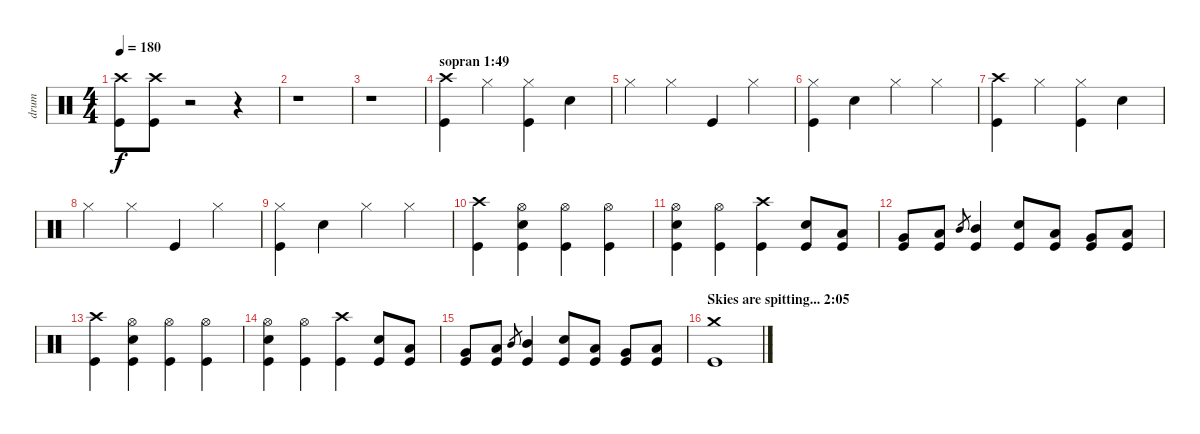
\track ("drum" "drum") {instrument percussion}
\staff {score}
\articulation defaults
\ts (4 4)
\tempo 180
\clef neutral
\ks c
("Crash high (hit)" "Kick (hit)").8{dy f} ("Crash high (hit)" "Kick (hit)").8 r.2{volume 0} r.4 |
r.1 |
r.1{volume 13} |
\section ("" "sopran 1:49")
("Crash high (hit)" "Kick (hit)").4 "Hi-Hat (closed)".4 ("Hi-Hat (closed)" "Kick (hit)").4 "Snare (hit) 2".4 |
"Hi-Hat (closed)".4 "Hi-Hat (closed)".4 "Kick (hit)".4 "Hi-Hat (closed)".4 |
("Hi-Hat (closed)" "Kick (hit)").4 "Snare (hit) 2".4 "Hi-Hat (closed)".4 "Hi-Hat (closed)".4 |
("Crash high (hit)" "Kick (hit)").4 "Hi-Hat (closed)".4 ("Hi-Hat (closed)" "Kick (hit)").4 "Snare (hit) 2".4 |
"Hi-Hat (closed)".4 "Hi-Hat (closed)".4 "Kick (hit)".4 "Hi-Hat (closed)".4 |
("Hi-Hat (closed)" "Kick (hit)").4 "Snare (hit) 2".4 "Hi-Hat (closed)".4 "Hi-Hat (closed)".4 |
("Crash high (hit)" "Kick (hit)").4 ("Hi-Hat (open)" "Snare (hit) 2" "Kick (hit)").4 ("Hi-Hat (open)" "Kick (hit)").4 ("Hi-Hat (open)" "Kick (hit)").4 |
("Hi-Hat (open)" "Snare (hit) 2" "Kick (hit)").4 ("Hi-Hat (open)" "Kick (hit)").4 ("Crash high (hit)" "Kick (hit)").4 ("Snare (hit) 2" "Kick (hit)").8 ("Low Tom (hit)" "Kick (hit)").8 |
("Very Low Tom (hit)" "Kick (hit)").8 ("Low Floor Tom (hit)" "Kick (hit)").8 "Mid Tom (hit)".8{gr} ("Mid Tom (hit)" "Kick (hit)").4 ("Snare (hit) 2" "Kick (hit)").8 ("Low Tom (hit)" "Kick (hit)").8 ("Very Low Tom (hit)" "Kick (hit)").8 ("Low Floor Tom (hit)" "Kick (hit)").8 |
("Crash high (hit)" "Kick (hit)").4 ("Hi-Hat (open)" "Snare (hit) 2" "Kick (hit)").4 ("Hi-Hat (open)" "Kick (hit)").4 ("Hi-Hat (open)" "Kick (hit)").4 |
("Hi-Hat (open)" "Snare (hit) 2" "Kick (hit)").4 ("Hi-Hat (open)" "Kick (hit)").4 ("Crash high (hit)" "Kick (hit)").4 ("Snare (hit) 2" "Kick (hit)").8 ("Low Tom (hit)" "Kick (hit)").8 |
("Very Low Tom (hit)" "Kick (hit)").8 ("Low Floor Tom (hit)" "Kick (hit)").8 "Mid Tom (hit)".8{gr} ("Mid Tom (hit)" "Kick (hit)").4 ("Snare (hit) 2" "Kick (hit)").8 ("Low Tom (hit)" "Kick (hit)").8 ("Very Low Tom (hit)" "Kick (hit)").8 ("Low Floor Tom (hit)" "Kick (hit)").8 |
\section ("" "Skies are spitting... 2:05")
("Crash medium (hit)" "Kick (hit)").1
